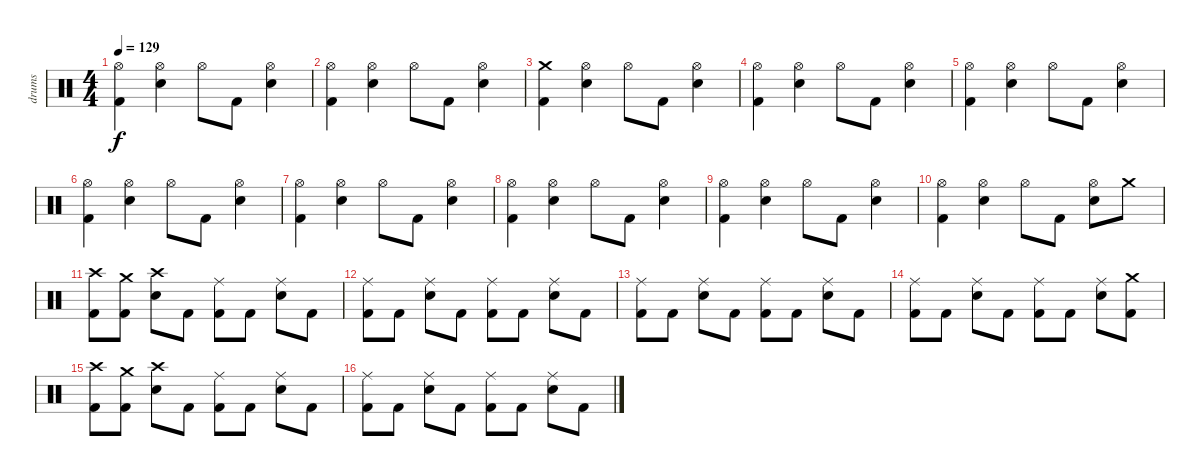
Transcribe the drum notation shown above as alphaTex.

\track ("drums" "drums") {instrument percussion}
\staff {score}
\articulation defaults
\ts (4 4)
\tempo 129
\clef neutral
\ks c
("Kick (hit) 2" "Hi-Hat (open)").4{dy f} ("Hi-Hat (open)" "Snare (hit) 2").4 "Hi-Hat (open)".8 "Kick (hit) 2".8 ("Hi-Hat (open)" "Snare (hit) 2").4 |
("Kick (hit) 2" "Hi-Hat (open)").4 ("Hi-Hat (open)" "Snare (hit) 2").4 "Hi-Hat (open)".8 "Kick (hit) 2".8 ("Hi-Hat (open)" "Snare (hit) 2").4 |
("Kick (hit) 2" "Crash medium (hit)").4 ("Hi-Hat (open)" "Snare (hit) 2").4 "Hi-Hat (open)".8 "Kick (hit) 2".8 ("Hi-Hat (open)" "Snare (hit) 2").4 |
("Kick (hit) 2" "Hi-Hat (open)").4 ("Hi-Hat (open)" "Snare (hit) 2").4 "Hi-Hat (open)".8 "Kick (hit) 2".8 ("Hi-Hat (open)" "Snare (hit) 2").4 |
("Kick (hit) 2" "Hi-Hat (open)").4 ("Hi-Hat (open)" "Snare (hit) 2").4 "Hi-Hat (open)".8 "Kick (hit) 2".8 ("Hi-Hat (open)" "Snare (hit) 2").4 |
("Kick (hit) 2" "Hi-Hat (open)").4 ("Hi-Hat (open)" "Snare (hit) 2").4 "Hi-Hat (open)".8 "Kick (hit) 2".8 ("Hi-Hat (open)" "Snare (hit) 2").4 |
("Kick (hit) 2" "Hi-Hat (open)").4 ("Hi-Hat (open)" "Snare (hit) 2").4 "Hi-Hat (open)".8 "Kick (hit) 2".8 ("Hi-Hat (open)" "Snare (hit) 2").4 |
("Kick (hit) 2" "Hi-Hat (open)").4 ("Hi-Hat (open)" "Snare (hit) 2").4 "Hi-Hat (open)".8 "Kick (hit) 2".8 ("Hi-Hat (open)" "Snare (hit) 2").4 |
("Kick (hit) 2" "Hi-Hat (open)").4 ("Hi-Hat (open)" "Snare (hit) 2").4 "Hi-Hat (open)".8 "Kick (hit) 2".8 ("Hi-Hat (open)" "Snare (hit) 2").4 |
("Kick (hit) 2" "Hi-Hat (open)").4 ("Hi-Hat (open)" "Snare (hit) 2").4 "Hi-Hat (open)".8 "Kick (hit) 2".8 ("Hi-Hat (open)" "Snare (hit) 2").8 "Crash medium (hit)".8 |
("Kick (hit) 2" "Crash high (hit)").8 ("Kick (hit) 2" "Crash medium (hit)").8 ("Crash high (hit)" "Snare (hit) 2").8 "Kick (hit) 2".8 ("Kick (hit) 2" "Ride (middle)").8 "Kick (hit) 2".8 ("Ride (middle)" "Snare (hit) 2").8 "Kick (hit) 2".8 |
("Kick (hit) 2" "Ride (middle)").8 "Kick (hit) 2".8 ("Ride (middle)" "Snare (hit) 2").8 "Kick (hit) 2".8 ("Kick (hit) 2" "Ride (middle)").8 "Kick (hit) 2".8 ("Ride (middle)" "Snare (hit) 2").8 "Kick (hit) 2".8 |
("Kick (hit) 2" "Ride (middle)").8 "Kick (hit) 2".8 ("Ride (middle)" "Snare (hit) 2").8 "Kick (hit) 2".8 ("Kick (hit) 2" "Ride (middle)").8 "Kick (hit) 2".8 ("Ride (middle)" "Snare (hit) 2").8 "Kick (hit) 2".8 |
("Kick (hit) 2" "Ride (middle)").8 "Kick (hit) 2".8 ("Ride (middle)" "Snare (hit) 2").8 "Kick (hit) 2".8 ("Kick (hit) 2" "Ride (middle)").8 "Kick (hit) 2".8 ("Ride (middle)" "Snare (hit) 2").8 ("Kick (hit) 2" "Crash medium (hit)").8 |
("Kick (hit) 2" "Crash high (hit)").8 ("Kick (hit) 2" "Crash medium (hit)").8 ("Crash high (hit)" "Snare (hit) 2").8 "Kick (hit) 2".8 ("Kick (hit) 2" "Ride (middle)").8 "Kick (hit) 2".8 ("Ride (middle)" "Snare (hit) 2").8 "Kick (hit) 2".8 |
("Kick (hit) 2" "Ride (middle)").8 "Kick (hit) 2".8 ("Ride (middle)" "Snare (hit) 2").8 "Kick (hit) 2".8 ("Kick (hit) 2" "Ride (middle)").8 "Kick (hit) 2".8 ("Ride (middle)" "Snare (hit) 2").8 "Kick (hit) 2".8
